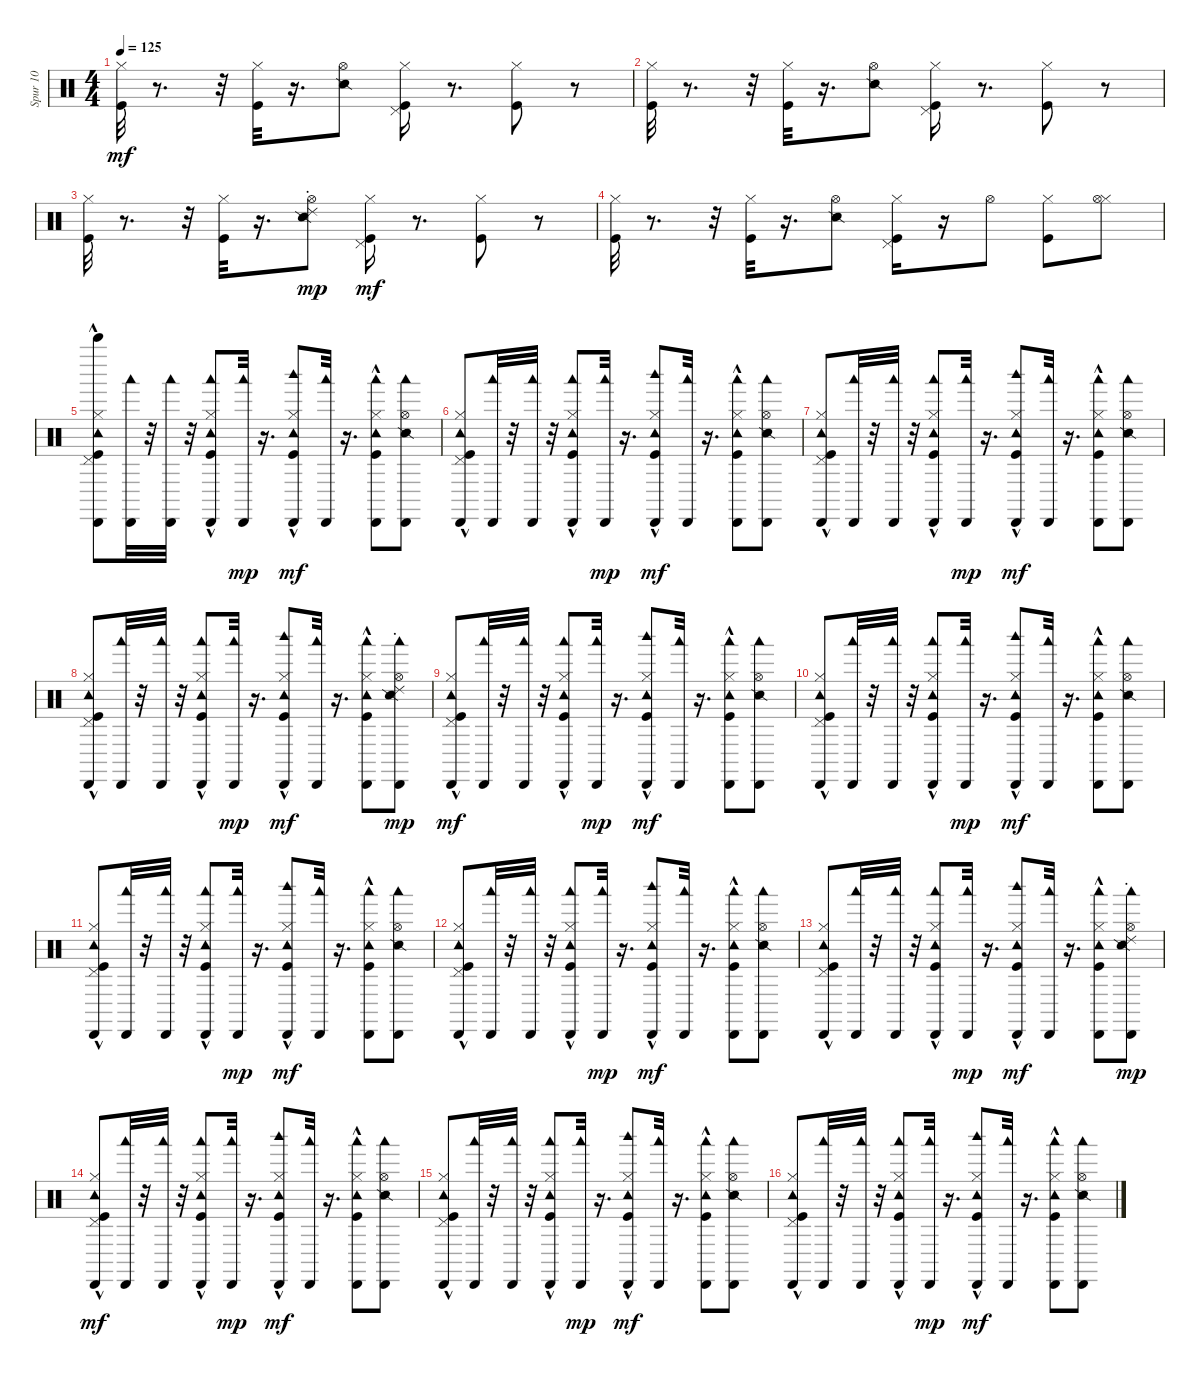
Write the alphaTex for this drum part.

\track ("Spur 10" "Spur 10") {instrument percussion}
\staff {score}
\articulation defaults
\ts (4 4)
\tempo 125
\clef neutral
\ks c
("Hi-Hat (closed)" "Kick (hit)").32{dy mf} r.8{d} r.32 ("Hi-Hat (closed)" "Kick (hit)").32 r.16{d} ("Hi-Hat (open)" "Snare (side stick) 2").8 ("Pedal Hi-Hat (hit)" "Kick (hit)" "Hi-Hat (closed)").16 r.8{d} ("Hi-Hat (closed)" "Kick (hit)").8 r.8 |
("Hi-Hat (closed)" "Kick (hit)").32 r.8{d} r.32 ("Hi-Hat (closed)" "Kick (hit)").32 r.16{d} ("Hi-Hat (open)" "Snare (side stick) 2").8 ("Pedal Hi-Hat (hit)" "Kick (hit)" "Hi-Hat (closed)").16 r.8{d} ("Hi-Hat (closed)" "Kick (hit)").8 r.8 |
("Hi-Hat (closed)" "Kick (hit)").32 r.8{d} r.32 ("Hi-Hat (closed)" "Kick (hit)").32 r.16{d} ("Hi-Hat (open)" "Snare (side stick) 2" "Ride (choke) 2").8{dy mp} ("Pedal Hi-Hat (hit)" "Kick (hit)" "Hi-Hat (closed)").16{dy mf} r.8{d} ("Hi-Hat (closed)" "Kick (hit)").8 r.8 |
("Hi-Hat (closed)" "Kick (hit)").32 r.8{d} r.32 ("Hi-Hat (closed)" "Kick (hit)").32 r.16{d} ("Hi-Hat (open)" "Snare (side stick) 2").8 ("Pedal Hi-Hat (hit)" "Kick (hit)" "Hi-Hat (closed)").16 r.16 "Hi-Hat (open)".8 ("Hi-Hat (closed)" "Kick (hit)").8 ("Hi-Hat (closed)" "Hi-Hat (open)").8 |
("Cabasa (hit)" "Tambourine (hit)"{hac} "Bell Tree (hit)"{hac} "Pedal Hi-Hat (hit)" "Kick (hit)" "Hi-Hat (closed)").8 ("Woodblock low (hit)" "Cabasa (hit)").32 r.32 ("Woodblock low (hit)" "Cabasa (hit)").32 r.32 ("Woodblock low (hit)" "Cabasa (hit)" "Tambourine (hit)"{hac} "Hi-Hat (closed)" "Kick (hit)").8 ("Woodblock low (hit)" "Cabasa (hit)").32{dy mp} r.16{d} ("Woodblock high (hit)" "Cabasa (hit)" "Tambourine (hit)"{hac} "Hi-Hat (closed)" "Kick (hit)").8{dy mf} ("Woodblock low (hit)" "Cabasa (hit)").32 r.16{d} ("Woodblock low (hit)" "Cabasa (hit)" "Tambourine (hit)"{hac} "Hi-Hat (closed)" "Kick (hit)").8 ("Woodblock low (hit)" "Cabasa (hit)" "Hi-Hat (open)" "Snare (side stick) 2").8 |
("Cabasa (hit)" "Tambourine (hit)"{hac} "Pedal Hi-Hat (hit)" "Kick (hit)" "Hi-Hat (closed)").8 ("Woodblock low (hit)" "Cabasa (hit)").32 r.32 ("Woodblock low (hit)" "Cabasa (hit)").32 r.32 ("Woodblock low (hit)" "Cabasa (hit)" "Tambourine (hit)"{hac} "Hi-Hat (closed)" "Kick (hit)").8 ("Woodblock low (hit)" "Cabasa (hit)").32{dy mp} r.16{d} ("Woodblock high (hit)" "Cabasa (hit)" "Tambourine (hit)"{hac} "Hi-Hat (closed)" "Kick (hit)").8{dy mf} ("Woodblock low (hit)" "Cabasa (hit)").32 r.16{d} ("Woodblock low (hit)" "Cabasa (hit)" "Tambourine (hit)"{hac} "Hi-Hat (closed)" "Kick (hit)").8 ("Woodblock low (hit)" "Cabasa (hit)" "Hi-Hat (open)" "Snare (side stick) 2").8 |
("Cabasa (hit)" "Tambourine (hit)"{hac} "Pedal Hi-Hat (hit)" "Kick (hit)" "Hi-Hat (closed)").8 ("Woodblock low (hit)" "Cabasa (hit)").32 r.32 ("Woodblock low (hit)" "Cabasa (hit)").32 r.32 ("Woodblock low (hit)" "Cabasa (hit)" "Tambourine (hit)"{hac} "Hi-Hat (closed)" "Kick (hit)").8 ("Woodblock low (hit)" "Cabasa (hit)").32{dy mp} r.16{d} ("Woodblock high (hit)" "Cabasa (hit)" "Tambourine (hit)"{hac} "Hi-Hat (closed)" "Kick (hit)").8{dy mf} ("Woodblock low (hit)" "Cabasa (hit)").32 r.16{d} ("Woodblock low (hit)" "Cabasa (hit)" "Tambourine (hit)"{hac} "Hi-Hat (closed)" "Kick (hit)").8 ("Woodblock low (hit)" "Cabasa (hit)" "Hi-Hat (open)" "Snare (side stick) 2").8 |
("Cabasa (hit)" "Tambourine (hit)"{hac} "Pedal Hi-Hat (hit)" "Kick (hit)" "Hi-Hat (closed)").8 ("Woodblock low (hit)" "Cabasa (hit)").32 r.32 ("Woodblock low (hit)" "Cabasa (hit)").32 r.32 ("Woodblock low (hit)" "Cabasa (hit)" "Tambourine (hit)"{hac} "Hi-Hat (closed)" "Kick (hit)").8 ("Woodblock low (hit)" "Cabasa (hit)").32{dy mp} r.16{d} ("Woodblock high (hit)" "Cabasa (hit)" "Tambourine (hit)"{hac} "Hi-Hat (closed)" "Kick (hit)").8{dy mf} ("Woodblock low (hit)" "Cabasa (hit)").32 r.16{d} ("Woodblock low (hit)" "Cabasa (hit)" "Tambourine (hit)"{hac} "Hi-Hat (closed)" "Kick (hit)").8 ("Woodblock low (hit)" "Cabasa (hit)" "Hi-Hat (open)" "Snare (side stick) 2" "Ride (choke) 2").8{dy mp} |
("Cabasa (hit)" "Tambourine (hit)"{hac} "Pedal Hi-Hat (hit)" "Kick (hit)" "Hi-Hat (closed)").8{dy mf} ("Woodblock low (hit)" "Cabasa (hit)").32 r.32 ("Woodblock low (hit)" "Cabasa (hit)").32 r.32 ("Woodblock low (hit)" "Cabasa (hit)" "Tambourine (hit)"{hac} "Hi-Hat (closed)" "Kick (hit)").8 ("Woodblock low (hit)" "Cabasa (hit)").32{dy mp} r.16{d} ("Woodblock high (hit)" "Cabasa (hit)" "Tambourine (hit)"{hac} "Hi-Hat (closed)" "Kick (hit)").8{dy mf} ("Woodblock low (hit)" "Cabasa (hit)").32 r.16{d} ("Woodblock low (hit)" "Cabasa (hit)" "Tambourine (hit)"{hac} "Hi-Hat (closed)" "Kick (hit)").8 ("Woodblock low (hit)" "Cabasa (hit)" "Hi-Hat (open)" "Snare (side stick) 2").8 |
("Cabasa (hit)" "Tambourine (hit)"{hac} "Pedal Hi-Hat (hit)" "Kick (hit)" "Hi-Hat (closed)").8 ("Woodblock low (hit)" "Cabasa (hit)").32 r.32 ("Woodblock low (hit)" "Cabasa (hit)").32 r.32 ("Woodblock low (hit)" "Cabasa (hit)" "Tambourine (hit)"{hac} "Hi-Hat (closed)" "Kick (hit)").8 ("Woodblock low (hit)" "Cabasa (hit)").32{dy mp} r.16{d} ("Woodblock high (hit)" "Cabasa (hit)" "Tambourine (hit)"{hac} "Hi-Hat (closed)" "Kick (hit)").8{dy mf} ("Woodblock low (hit)" "Cabasa (hit)").32 r.16{d} ("Woodblock low (hit)" "Cabasa (hit)" "Tambourine (hit)"{hac} "Hi-Hat (closed)" "Kick (hit)").8 ("Woodblock low (hit)" "Cabasa (hit)" "Hi-Hat (open)" "Snare (side stick) 2").8 |
("Cabasa (hit)" "Tambourine (hit)"{hac} "Pedal Hi-Hat (hit)" "Kick (hit)" "Hi-Hat (closed)").8 ("Woodblock low (hit)" "Cabasa (hit)").32 r.32 ("Woodblock low (hit)" "Cabasa (hit)").32 r.32 ("Woodblock low (hit)" "Cabasa (hit)" "Tambourine (hit)"{hac} "Hi-Hat (closed)" "Kick (hit)").8 ("Woodblock low (hit)" "Cabasa (hit)").32{dy mp} r.16{d} ("Woodblock high (hit)" "Cabasa (hit)" "Tambourine (hit)"{hac} "Hi-Hat (closed)" "Kick (hit)").8{dy mf} ("Woodblock low (hit)" "Cabasa (hit)").32 r.16{d} ("Woodblock low (hit)" "Cabasa (hit)" "Tambourine (hit)"{hac} "Hi-Hat (closed)" "Kick (hit)").8 ("Woodblock low (hit)" "Cabasa (hit)" "Hi-Hat (open)" "Snare (side stick) 2").8 |
("Cabasa (hit)" "Tambourine (hit)"{hac} "Pedal Hi-Hat (hit)" "Kick (hit)" "Hi-Hat (closed)").8 ("Woodblock low (hit)" "Cabasa (hit)").32 r.32 ("Woodblock low (hit)" "Cabasa (hit)").32 r.32 ("Woodblock low (hit)" "Cabasa (hit)" "Tambourine (hit)"{hac} "Hi-Hat (closed)" "Kick (hit)").8 ("Woodblock low (hit)" "Cabasa (hit)").32{dy mp} r.16{d} ("Woodblock high (hit)" "Cabasa (hit)" "Tambourine (hit)"{hac} "Hi-Hat (closed)" "Kick (hit)").8{dy mf} ("Woodblock low (hit)" "Cabasa (hit)").32 r.16{d} ("Woodblock low (hit)" "Cabasa (hit)" "Tambourine (hit)"{hac} "Hi-Hat (closed)" "Kick (hit)").8 ("Woodblock low (hit)" "Cabasa (hit)" "Hi-Hat (open)" "Snare (side stick) 2").8 |
("Cabasa (hit)" "Tambourine (hit)"{hac} "Pedal Hi-Hat (hit)" "Kick (hit)" "Hi-Hat (closed)").8 ("Woodblock low (hit)" "Cabasa (hit)").32 r.32 ("Woodblock low (hit)" "Cabasa (hit)").32 r.32 ("Woodblock low (hit)" "Cabasa (hit)" "Tambourine (hit)"{hac} "Hi-Hat (closed)" "Kick (hit)").8 ("Woodblock low (hit)" "Cabasa (hit)").32{dy mp} r.16{d} ("Woodblock high (hit)" "Cabasa (hit)" "Tambourine (hit)"{hac} "Hi-Hat (closed)" "Kick (hit)").8{dy mf} ("Woodblock low (hit)" "Cabasa (hit)").32 r.16{d} ("Woodblock low (hit)" "Cabasa (hit)" "Tambourine (hit)"{hac} "Hi-Hat (closed)" "Kick (hit)").8 ("Woodblock low (hit)" "Cabasa (hit)" "Hi-Hat (open)" "Snare (side stick) 2" "Ride (choke) 2").8{dy mp} |
("Cabasa (hit)" "Tambourine (hit)"{hac} "Pedal Hi-Hat (hit)" "Kick (hit)" "Hi-Hat (closed)").8{dy mf} ("Woodblock low (hit)" "Cabasa (hit)").32 r.32 ("Woodblock low (hit)" "Cabasa (hit)").32 r.32 ("Woodblock low (hit)" "Cabasa (hit)" "Tambourine (hit)"{hac} "Hi-Hat (closed)" "Kick (hit)").8 ("Woodblock low (hit)" "Cabasa (hit)").32{dy mp} r.16{d} ("Woodblock high (hit)" "Cabasa (hit)" "Tambourine (hit)"{hac} "Hi-Hat (closed)" "Kick (hit)").8{dy mf} ("Woodblock low (hit)" "Cabasa (hit)").32 r.16{d} ("Woodblock low (hit)" "Cabasa (hit)" "Tambourine (hit)"{hac} "Hi-Hat (closed)" "Kick (hit)").8 ("Woodblock low (hit)" "Cabasa (hit)" "Hi-Hat (open)" "Snare (side stick) 2").8 |
("Cabasa (hit)" "Tambourine (hit)"{hac} "Pedal Hi-Hat (hit)" "Kick (hit)" "Hi-Hat (closed)").8 ("Woodblock low (hit)" "Cabasa (hit)").32 r.32 ("Woodblock low (hit)" "Cabasa (hit)").32 r.32 ("Woodblock low (hit)" "Cabasa (hit)" "Tambourine (hit)"{hac} "Hi-Hat (closed)" "Kick (hit)").8 ("Woodblock low (hit)" "Cabasa (hit)").32{dy mp} r.16{d} ("Woodblock high (hit)" "Cabasa (hit)" "Tambourine (hit)"{hac} "Hi-Hat (closed)" "Kick (hit)").8{dy mf} ("Woodblock low (hit)" "Cabasa (hit)").32 r.16{d} ("Woodblock low (hit)" "Cabasa (hit)" "Tambourine (hit)"{hac} "Hi-Hat (closed)" "Kick (hit)").8 ("Woodblock low (hit)" "Cabasa (hit)" "Hi-Hat (open)" "Snare (side stick) 2").8 |
("Cabasa (hit)" "Tambourine (hit)"{hac} "Pedal Hi-Hat (hit)" "Kick (hit)" "Hi-Hat (closed)").8 ("Woodblock low (hit)" "Cabasa (hit)").32 r.32 ("Woodblock low (hit)" "Cabasa (hit)").32 r.32 ("Woodblock low (hit)" "Cabasa (hit)" "Tambourine (hit)"{hac} "Hi-Hat (closed)" "Kick (hit)").8 ("Woodblock low (hit)" "Cabasa (hit)").32{dy mp} r.16{d} ("Woodblock high (hit)" "Cabasa (hit)" "Tambourine (hit)"{hac} "Hi-Hat (closed)" "Kick (hit)").8{dy mf} ("Woodblock low (hit)" "Cabasa (hit)").32 r.16{d} ("Woodblock low (hit)" "Cabasa (hit)" "Tambourine (hit)"{hac} "Hi-Hat (closed)" "Kick (hit)").8 ("Woodblock low (hit)" "Cabasa (hit)" "Hi-Hat (open)" "Snare (side stick) 2").8
